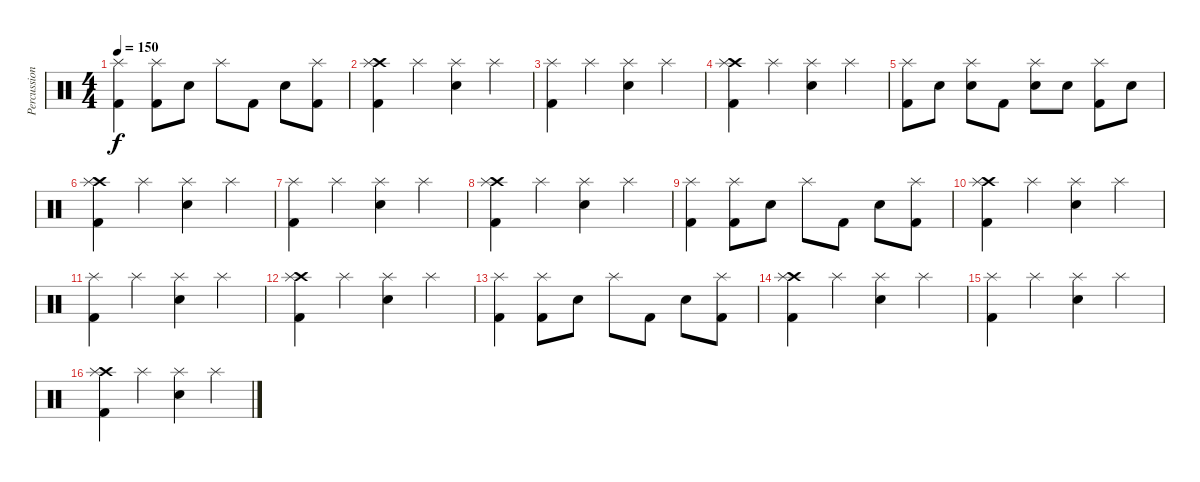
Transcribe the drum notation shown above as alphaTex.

\track ("Percussion" "Percussion") {instrument percussion}
\staff {score}
\articulation defaults
\ts (4 4)
\tempo 150
\clef neutral
\ks c
("Splash (hit)" "Kick (hit) 2").4{dy f} ("Splash (hit)" "Kick (hit) 2").8 "Snare (hit) 2".8 "Splash (hit)".8 "Kick (hit) 2".8 "Snare (hit) 2".8 ("Splash (hit)" "Kick (hit) 2").8 |
("Crash high (hit)" "Splash (hit)" "Kick (hit) 2").4 "Splash (hit)".4 ("Splash (hit)" "Snare (hit) 2").4 "Splash (hit)".4 |
("Splash (hit)" "Kick (hit) 2").4 "Splash (hit)".4 ("Splash (hit)" "Snare (hit) 2").4 "Splash (hit)".4 |
("Crash high (hit)" "Splash (hit)" "Kick (hit) 2").4 "Splash (hit)".4 ("Splash (hit)" "Snare (hit) 2").4 "Splash (hit)".4 |
("Splash (hit)" "Kick (hit) 2").8 "Snare (hit) 2".8 ("Splash (hit)" "Snare (hit) 2").8 "Kick (hit) 2".8 ("Splash (hit)" "Snare (hit) 2").8 "Snare (hit) 2".8 ("Splash (hit)" "Kick (hit) 2").8 "Snare (hit) 2".8 |
("Crash high (hit)" "Splash (hit)" "Kick (hit) 2").4 "Splash (hit)".4 ("Splash (hit)" "Snare (hit) 2").4 "Splash (hit)".4 |
("Splash (hit)" "Kick (hit) 2").4 "Splash (hit)".4 ("Splash (hit)" "Snare (hit) 2").4 "Splash (hit)".4 |
("Crash high (hit)" "Splash (hit)" "Kick (hit) 2").4 "Splash (hit)".4 ("Splash (hit)" "Snare (hit) 2").4 "Splash (hit)".4 |
("Splash (hit)" "Kick (hit) 2").4 ("Splash (hit)" "Kick (hit) 2").8 "Snare (hit) 2".8 "Splash (hit)".8 "Kick (hit) 2".8 "Snare (hit) 2".8 ("Splash (hit)" "Kick (hit) 2").8 |
("Crash high (hit)" "Splash (hit)" "Kick (hit) 2").4 "Splash (hit)".4 ("Splash (hit)" "Snare (hit) 2").4 "Splash (hit)".4 |
("Splash (hit)" "Kick (hit) 2").4 "Splash (hit)".4 ("Splash (hit)" "Snare (hit) 2").4 "Splash (hit)".4 |
("Crash high (hit)" "Splash (hit)" "Kick (hit) 2").4 "Splash (hit)".4 ("Splash (hit)" "Snare (hit) 2").4 "Splash (hit)".4 |
("Splash (hit)" "Kick (hit) 2").4 ("Splash (hit)" "Kick (hit) 2").8 "Snare (hit) 2".8 "Splash (hit)".8 "Kick (hit) 2".8 "Snare (hit) 2".8 ("Splash (hit)" "Kick (hit) 2").8 |
("Crash high (hit)" "Splash (hit)" "Kick (hit) 2").4 "Splash (hit)".4 ("Splash (hit)" "Snare (hit) 2").4 "Splash (hit)".4 |
("Splash (hit)" "Kick (hit) 2").4 "Splash (hit)".4 ("Splash (hit)" "Snare (hit) 2").4 "Splash (hit)".4 |
("Crash high (hit)" "Splash (hit)" "Kick (hit) 2").4 "Splash (hit)".4 ("Splash (hit)" "Snare (hit) 2").4 "Splash (hit)".4
